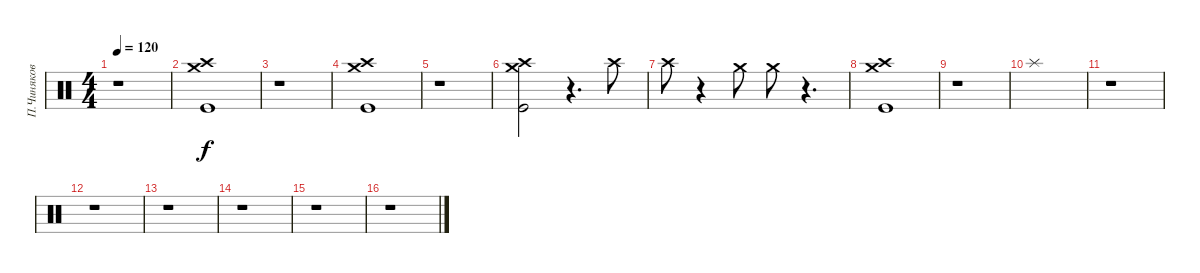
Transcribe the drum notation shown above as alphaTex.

\track ("П.Чиняков" "П.Чиняков") {instrument percussion}
\staff {score}
\articulation defaults
\ts (4 4)
\tempo 120
\clef neutral
\ks c
r.1{dy f} |
("Crash medium (hit)" "Crash high (hit)" "Kick (hit)").1 |
r.1 |
("Crash medium (hit)" "Crash high (hit)" "Kick (hit)").1 |
r.1 |
("Crash medium (hit)" "Crash high (hit)" "Kick (hit)").2 r.4{d} "Crash high (hit)".8 |
"Crash high (hit)".8 r.4 "Crash medium (hit)".8 "Crash medium (hit)".8 r.4{d} |
("Crash medium (hit)" "Crash high (hit)" "Kick (hit)").1 |
r.1 |
"Splash (hit)".1 |
r.1 |
r.1 |
r.1 |
r.1 |
r.1 |
r.1
